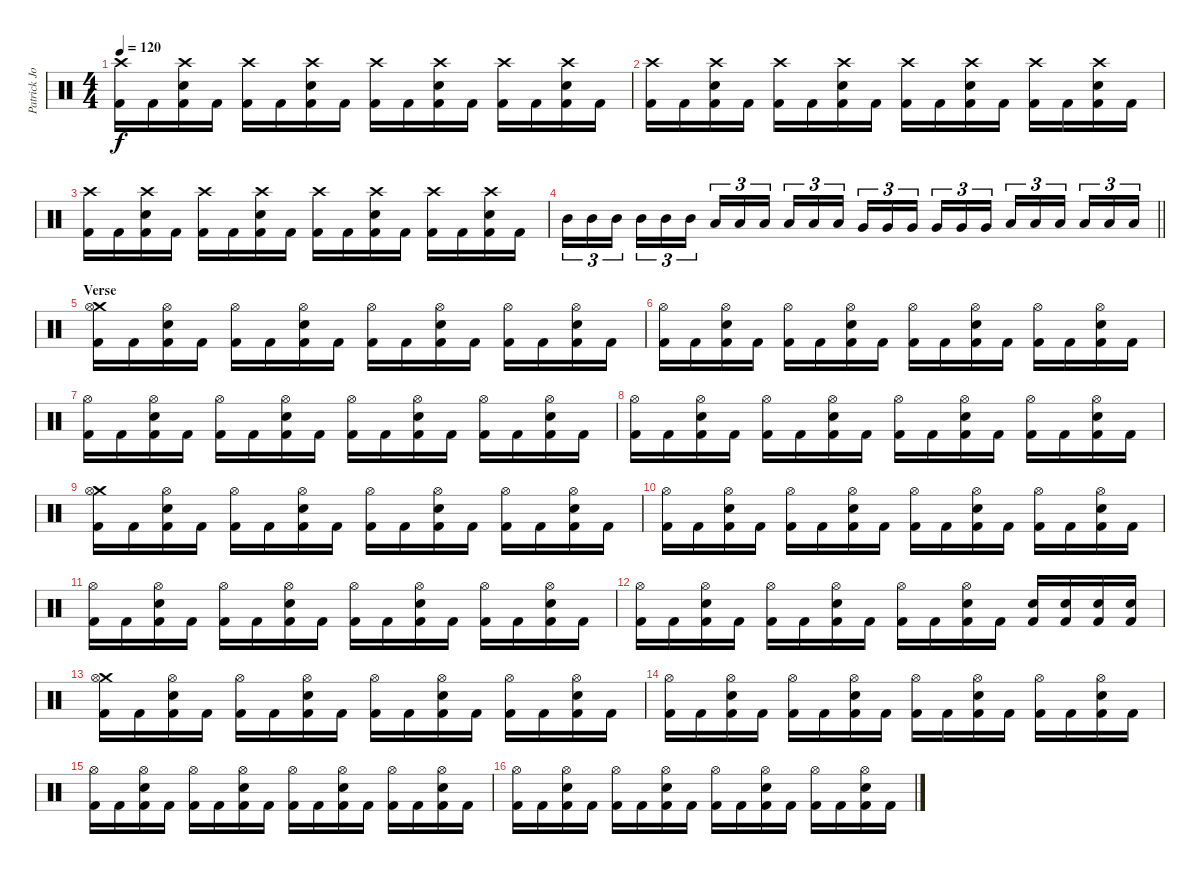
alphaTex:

\track ("Patrick Johansson" "Patrick Jo") {instrument percussion}
\staff {score}
\articulation defaults
\ts (4 4)
\tempo 120
\clef neutral
\ks c
("Crash high (hit)" "Kick (hit) 2").16{dy f} "Kick (hit) 2".16 ("Crash high (hit)" "Snare (hit) 2" "Kick (hit) 2").16 "Kick (hit) 2".16 ("Crash high (hit)" "Kick (hit) 2").16 "Kick (hit) 2".16 ("Crash high (hit)" "Snare (hit) 2" "Kick (hit) 2").16 "Kick (hit) 2".16 ("Crash high (hit)" "Kick (hit) 2").16 "Kick (hit) 2".16 ("Crash high (hit)" "Snare (hit) 2" "Kick (hit) 2").16 "Kick (hit) 2".16 ("Crash high (hit)" "Kick (hit) 2").16 "Kick (hit) 2".16 ("Crash high (hit)" "Snare (hit) 2" "Kick (hit) 2").16 "Kick (hit) 2".16 |
("Crash high (hit)" "Kick (hit) 2").16 "Kick (hit) 2".16 ("Crash high (hit)" "Snare (hit) 2" "Kick (hit) 2").16 "Kick (hit) 2".16 ("Crash high (hit)" "Kick (hit) 2").16 "Kick (hit) 2".16 ("Crash high (hit)" "Snare (hit) 2" "Kick (hit) 2").16 "Kick (hit) 2".16 ("Crash high (hit)" "Kick (hit) 2").16 "Kick (hit) 2".16 ("Crash high (hit)" "Snare (hit) 2" "Kick (hit) 2").16 "Kick (hit) 2".16 ("Crash high (hit)" "Kick (hit) 2").16 "Kick (hit) 2".16 ("Crash high (hit)" "Snare (hit) 2" "Kick (hit) 2").16 "Kick (hit) 2".16 |
("Crash high (hit)" "Kick (hit) 2").16 "Kick (hit) 2".16 ("Crash high (hit)" "Snare (hit) 2" "Kick (hit) 2").16 "Kick (hit) 2".16 ("Crash high (hit)" "Kick (hit) 2").16 "Kick (hit) 2".16 ("Crash high (hit)" "Snare (hit) 2" "Kick (hit) 2").16 "Kick (hit) 2".16 ("Crash high (hit)" "Kick (hit) 2").16 "Kick (hit) 2".16 ("Crash high (hit)" "Snare (hit) 2" "Kick (hit) 2").16 "Kick (hit) 2".16 ("Crash high (hit)" "Kick (hit) 2").16 "Kick (hit) 2".16 ("Crash high (hit)" "Snare (hit) 2" "Kick (hit) 2").16 "Kick (hit) 2".16 |
\barLineRight lightlight "Mid Tom (hit)".16{tu (3 2)} "Mid Tom (hit)".16{tu (3 2)} "Mid Tom (hit)".16{tu (3 2) beam splitsecondary} "Mid Tom (hit)".16{tu (3 2)} "Mid Tom (hit)".16{tu (3 2)} "Mid Tom (hit)".16{tu (3 2)} "Low Tom (hit)".16{tu (3 2)} "Low Tom (hit)".16{tu (3 2)} "Low Tom (hit)".16{tu (3 2) beam splitsecondary} "Low Tom (hit)".16{tu (3 2)} "Low Tom (hit)".16{tu (3 2)} "Low Tom (hit)".16{tu (3 2)} "Very Low Tom (hit)".16{tu (3 2)} "Very Low Tom (hit)".16{tu (3 2)} "Very Low Tom (hit)".16{tu (3 2) beam splitsecondary} "Very Low Tom (hit)".16{tu (3 2)} "Very Low Tom (hit)".16{tu (3 2)} "Very Low Tom (hit)".16{tu (3 2)} "Low Floor Tom (hit)".16{tu (3 2)} "Low Floor Tom (hit)".16{tu (3 2)} "Low Floor Tom (hit)".16{tu (3 2) beam splitsecondary} "Low Floor Tom (hit)".16{tu (3 2)} "Low Floor Tom (hit)".16{tu (3 2)} "Low Floor Tom (hit)".16{tu (3 2)}
|
\section ("" "Verse")
("Crash medium (hit)" "Hi-Hat (open)" "Kick (hit) 2").16 "Kick (hit) 2".16 ("Hi-Hat (open)" "Snare (hit) 2" "Kick (hit) 2").16 "Kick (hit) 2".16 ("Hi-Hat (open)" "Kick (hit) 2").16 "Kick (hit) 2".16 ("Hi-Hat (open)" "Snare (hit) 2" "Kick (hit) 2").16 "Kick (hit) 2".16 ("Hi-Hat (open)" "Kick (hit) 2").16 "Kick (hit) 2".16 ("Hi-Hat (open)" "Snare (hit) 2" "Kick (hit) 2").16 "Kick (hit) 2".16 ("Hi-Hat (open)" "Kick (hit) 2").16 "Kick (hit) 2".16 ("Hi-Hat (open)" "Snare (hit) 2" "Kick (hit) 2").16 "Kick (hit) 2".16 |
("Hi-Hat (open)" "Kick (hit) 2").16 "Kick (hit) 2".16 ("Hi-Hat (open)" "Snare (hit) 2" "Kick (hit) 2").16 "Kick (hit) 2".16 ("Hi-Hat (open)" "Kick (hit) 2").16 "Kick (hit) 2".16 ("Hi-Hat (open)" "Snare (hit) 2" "Kick (hit) 2").16 "Kick (hit) 2".16 ("Hi-Hat (open)" "Kick (hit) 2").16 "Kick (hit) 2".16 ("Hi-Hat (open)" "Snare (hit) 2" "Kick (hit) 2").16 "Kick (hit) 2".16 ("Hi-Hat (open)" "Kick (hit) 2").16 "Kick (hit) 2".16 ("Hi-Hat (open)" "Snare (hit) 2" "Kick (hit) 2").16 "Kick (hit) 2".16 |
("Hi-Hat (open)" "Kick (hit) 2").16 "Kick (hit) 2".16 ("Hi-Hat (open)" "Snare (hit) 2" "Kick (hit) 2").16 "Kick (hit) 2".16 ("Hi-Hat (open)" "Kick (hit) 2").16 "Kick (hit) 2".16 ("Hi-Hat (open)" "Snare (hit) 2" "Kick (hit) 2").16 "Kick (hit) 2".16 ("Hi-Hat (open)" "Kick (hit) 2").16 "Kick (hit) 2".16 ("Hi-Hat (open)" "Snare (hit) 2" "Kick (hit) 2").16 "Kick (hit) 2".16 ("Hi-Hat (open)" "Kick (hit) 2").16 "Kick (hit) 2".16 ("Hi-Hat (open)" "Snare (hit) 2" "Kick (hit) 2").16 "Kick (hit) 2".16 |
("Hi-Hat (open)" "Kick (hit) 2").16 "Kick (hit) 2".16 ("Hi-Hat (open)" "Snare (hit) 2" "Kick (hit) 2").16 "Kick (hit) 2".16 ("Hi-Hat (open)" "Kick (hit) 2").16 "Kick (hit) 2".16 ("Hi-Hat (open)" "Snare (hit) 2" "Kick (hit) 2").16 "Kick (hit) 2".16 ("Hi-Hat (open)" "Kick (hit) 2").16 "Kick (hit) 2".16 ("Hi-Hat (open)" "Snare (hit) 2" "Kick (hit) 2").16 "Kick (hit) 2".16 ("Hi-Hat (open)" "Kick (hit) 2").16 "Kick (hit) 2".16 ("Hi-Hat (open)" "Snare (hit) 2" "Kick (hit) 2").16 "Kick (hit) 2".16 |
("Crash medium (hit)" "Hi-Hat (open)" "Kick (hit) 2").16 "Kick (hit) 2".16 ("Hi-Hat (open)" "Snare (hit) 2" "Kick (hit) 2").16 "Kick (hit) 2".16 ("Hi-Hat (open)" "Kick (hit) 2").16 "Kick (hit) 2".16 ("Hi-Hat (open)" "Snare (hit) 2" "Kick (hit) 2").16 "Kick (hit) 2".16 ("Hi-Hat (open)" "Kick (hit) 2").16 "Kick (hit) 2".16 ("Hi-Hat (open)" "Snare (hit) 2" "Kick (hit) 2").16 "Kick (hit) 2".16 ("Hi-Hat (open)" "Kick (hit) 2").16 "Kick (hit) 2".16 ("Hi-Hat (open)" "Snare (hit) 2" "Kick (hit) 2").16 "Kick (hit) 2".16 |
("Hi-Hat (open)" "Kick (hit) 2").16 "Kick (hit) 2".16 ("Hi-Hat (open)" "Snare (hit) 2" "Kick (hit) 2").16 "Kick (hit) 2".16 ("Hi-Hat (open)" "Kick (hit) 2").16 "Kick (hit) 2".16 ("Hi-Hat (open)" "Snare (hit) 2" "Kick (hit) 2").16 "Kick (hit) 2".16 ("Hi-Hat (open)" "Kick (hit) 2").16 "Kick (hit) 2".16 ("Hi-Hat (open)" "Snare (hit) 2" "Kick (hit) 2").16 "Kick (hit) 2".16 ("Hi-Hat (open)" "Kick (hit) 2").16 "Kick (hit) 2".16 ("Hi-Hat (open)" "Snare (hit) 2" "Kick (hit) 2").16 "Kick (hit) 2".16 |
("Hi-Hat (open)" "Kick (hit) 2").16 "Kick (hit) 2".16 ("Hi-Hat (open)" "Snare (hit) 2" "Kick (hit) 2").16 "Kick (hit) 2".16 ("Hi-Hat (open)" "Kick (hit) 2").16 "Kick (hit) 2".16 ("Hi-Hat (open)" "Snare (hit) 2" "Kick (hit) 2").16 "Kick (hit) 2".16 ("Hi-Hat (open)" "Kick (hit) 2").16 "Kick (hit) 2".16 ("Hi-Hat (open)" "Snare (hit) 2" "Kick (hit) 2").16 "Kick (hit) 2".16 ("Hi-Hat (open)" "Kick (hit) 2").16 "Kick (hit) 2".16 ("Hi-Hat (open)" "Snare (hit) 2" "Kick (hit) 2").16 "Kick (hit) 2".16 |
("Hi-Hat (open)" "Kick (hit) 2").16 "Kick (hit) 2".16 ("Hi-Hat (open)" "Snare (hit) 2" "Kick (hit) 2").16 "Kick (hit) 2".16 ("Hi-Hat (open)" "Kick (hit) 2").16 "Kick (hit) 2".16 ("Hi-Hat (open)" "Snare (hit) 2" "Kick (hit) 2").16 "Kick (hit) 2".16 ("Hi-Hat (open)" "Kick (hit) 2").16 "Kick (hit) 2".16 ("Hi-Hat (open)" "Snare (hit) 2" "Kick (hit) 2").16 "Kick (hit) 2".16 ("Snare (hit) 2" "Kick (hit) 2").16 ("Snare (hit) 2" "Kick (hit) 2").16 ("Snare (hit) 2" "Kick (hit) 2").16 ("Snare (hit) 2" "Kick (hit) 2").16 |
("Crash medium (hit)" "Hi-Hat (open)" "Kick (hit) 2").16 "Kick (hit) 2".16 ("Hi-Hat (open)" "Snare (hit) 2" "Kick (hit) 2").16 "Kick (hit) 2".16 ("Hi-Hat (open)" "Kick (hit) 2").16 "Kick (hit) 2".16 ("Hi-Hat (open)" "Snare (hit) 2" "Kick (hit) 2").16 "Kick (hit) 2".16 ("Hi-Hat (open)" "Kick (hit) 2").16 "Kick (hit) 2".16 ("Hi-Hat (open)" "Snare (hit) 2" "Kick (hit) 2").16 "Kick (hit) 2".16 ("Hi-Hat (open)" "Kick (hit) 2").16 "Kick (hit) 2".16 ("Hi-Hat (open)" "Snare (hit) 2" "Kick (hit) 2").16 "Kick (hit) 2".16 |
("Hi-Hat (open)" "Kick (hit) 2").16 "Kick (hit) 2".16 ("Hi-Hat (open)" "Snare (hit) 2" "Kick (hit) 2").16 "Kick (hit) 2".16 ("Hi-Hat (open)" "Kick (hit) 2").16 "Kick (hit) 2".16 ("Hi-Hat (open)" "Snare (hit) 2" "Kick (hit) 2").16 "Kick (hit) 2".16 ("Hi-Hat (open)" "Kick (hit) 2").16 "Kick (hit) 2".16 ("Hi-Hat (open)" "Snare (hit) 2" "Kick (hit) 2").16 "Kick (hit) 2".16 ("Hi-Hat (open)" "Kick (hit) 2").16 "Kick (hit) 2".16 ("Hi-Hat (open)" "Snare (hit) 2" "Kick (hit) 2").16 "Kick (hit) 2".16 |
("Hi-Hat (open)" "Kick (hit) 2").16 "Kick (hit) 2".16 ("Hi-Hat (open)" "Snare (hit) 2" "Kick (hit) 2").16 "Kick (hit) 2".16 ("Hi-Hat (open)" "Kick (hit) 2").16 "Kick (hit) 2".16 ("Hi-Hat (open)" "Snare (hit) 2" "Kick (hit) 2").16 "Kick (hit) 2".16 ("Hi-Hat (open)" "Kick (hit) 2").16 "Kick (hit) 2".16 ("Hi-Hat (open)" "Snare (hit) 2" "Kick (hit) 2").16 "Kick (hit) 2".16 ("Hi-Hat (open)" "Kick (hit) 2").16 "Kick (hit) 2".16 ("Hi-Hat (open)" "Snare (hit) 2" "Kick (hit) 2").16 "Kick (hit) 2".16 |
("Hi-Hat (open)" "Kick (hit) 2").16 "Kick (hit) 2".16 ("Hi-Hat (open)" "Snare (hit) 2" "Kick (hit) 2").16 "Kick (hit) 2".16 ("Hi-Hat (open)" "Kick (hit) 2").16 "Kick (hit) 2".16 ("Hi-Hat (open)" "Snare (hit) 2" "Kick (hit) 2").16 "Kick (hit) 2".16 ("Hi-Hat (open)" "Kick (hit) 2").16 "Kick (hit) 2".16 ("Hi-Hat (open)" "Snare (hit) 2" "Kick (hit) 2").16 "Kick (hit) 2".16 ("Hi-Hat (open)" "Kick (hit) 2").16 "Kick (hit) 2".16 ("Hi-Hat (open)" "Snare (hit) 2" "Kick (hit) 2").16 "Kick (hit) 2".16
